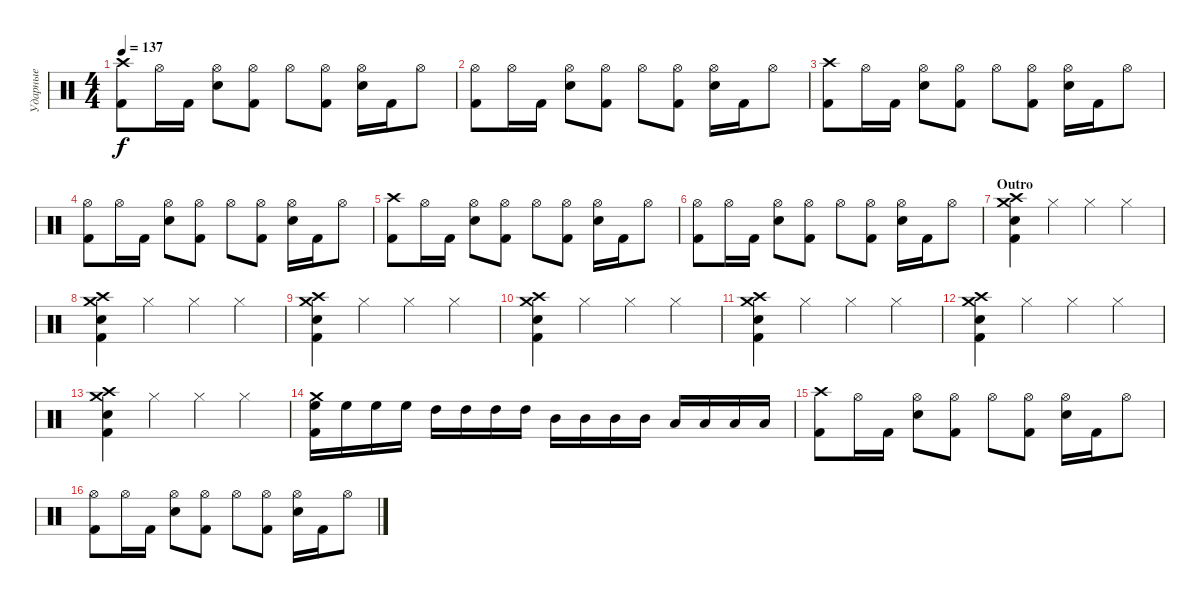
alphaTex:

\track ("Ударные" "Ударные") {instrument percussion}
\staff {score}
\articulation defaults
\ts (4 4)
\tempo 137
\clef neutral
\ks c
("Crash high (hit)" "Kick (hit) 2").8{dy f} "Hi-Hat (open)".16 "Kick (hit) 2".16 ("Hi-Hat (open)" "Electric Snare (hit)").8 ("Hi-Hat (open)" "Kick (hit) 2").8 "Hi-Hat (open)".8 ("Hi-Hat (open)" "Kick (hit) 2").8 ("Hi-Hat (open)" "Electric Snare (hit)").16 "Kick (hit) 2".16 "Hi-Hat (open)".8 |
("Hi-Hat (open)" "Kick (hit) 2").8 "Hi-Hat (open)".16 "Kick (hit) 2".16 ("Hi-Hat (open)" "Electric Snare (hit)").8 ("Hi-Hat (open)" "Kick (hit) 2").8 "Hi-Hat (open)".8 ("Hi-Hat (open)" "Kick (hit) 2").8 ("Hi-Hat (open)" "Electric Snare (hit)").16 "Kick (hit) 2".16 "Hi-Hat (open)".8 |
("Crash high (hit)" "Kick (hit) 2").8 "Hi-Hat (open)".16 "Kick (hit) 2".16 ("Hi-Hat (open)" "Electric Snare (hit)").8 ("Hi-Hat (open)" "Kick (hit) 2").8 "Hi-Hat (open)".8 ("Hi-Hat (open)" "Kick (hit) 2").8 ("Hi-Hat (open)" "Electric Snare (hit)").16 "Kick (hit) 2".16 "Hi-Hat (open)".8 |
("Hi-Hat (open)" "Kick (hit) 2").8 "Hi-Hat (open)".16 "Kick (hit) 2".16 ("Hi-Hat (open)" "Electric Snare (hit)").8 ("Hi-Hat (open)" "Kick (hit) 2").8 "Hi-Hat (open)".8 ("Hi-Hat (open)" "Kick (hit) 2").8 ("Hi-Hat (open)" "Electric Snare (hit)").16 "Kick (hit) 2".16 "Hi-Hat (open)".8 |
("Crash high (hit)" "Kick (hit) 2").8 "Hi-Hat (open)".16 "Kick (hit) 2".16 ("Hi-Hat (open)" "Electric Snare (hit)").8 ("Hi-Hat (open)" "Kick (hit) 2").8 "Hi-Hat (open)".8 ("Hi-Hat (open)" "Kick (hit) 2").8 ("Hi-Hat (open)" "Electric Snare (hit)").16 "Kick (hit) 2".16 "Hi-Hat (open)".8 |
("Hi-Hat (open)" "Kick (hit) 2").8 "Hi-Hat (open)".16 "Kick (hit) 2".16 ("Hi-Hat (open)" "Electric Snare (hit)").8 ("Hi-Hat (open)" "Kick (hit) 2").8 "Hi-Hat (open)".8 ("Hi-Hat (open)" "Kick (hit) 2").8 ("Hi-Hat (open)" "Electric Snare (hit)").16 "Kick (hit) 2".16 "Hi-Hat (open)".8 |
\section ("" "Outro")
("Crash medium (hit)" "Crash high (hit)" "Electric Snare (hit)" "Kick (hit) 2").4 "Hi-Hat (closed)".4 "Hi-Hat (closed)".4 "Hi-Hat (closed)".4 |
("Crash medium (hit)" "Crash high (hit)" "Electric Snare (hit)" "Kick (hit) 2").4 "Hi-Hat (closed)".4 "Hi-Hat (closed)".4 "Hi-Hat (closed)".4 |
("Crash medium (hit)" "Crash high (hit)" "Electric Snare (hit)" "Kick (hit) 2").4 "Hi-Hat (closed)".4 "Hi-Hat (closed)".4 "Hi-Hat (closed)".4 |
("Crash medium (hit)" "Crash high (hit)" "Electric Snare (hit)" "Kick (hit) 2").4 "Hi-Hat (closed)".4 "Hi-Hat (closed)".4 "Hi-Hat (closed)".4 |
("Crash medium (hit)" "Crash high (hit)" "Electric Snare (hit)" "Kick (hit) 2").4 "Hi-Hat (closed)".4 "Hi-Hat (closed)".4 "Hi-Hat (closed)".4 |
("Crash medium (hit)" "Crash high (hit)" "Electric Snare (hit)" "Kick (hit) 2").4 "Hi-Hat (closed)".4 "Hi-Hat (closed)".4 "Hi-Hat (closed)".4 |
("Crash medium (hit)" "Crash high (hit)" "Electric Snare (hit)" "Kick (hit) 2").4 "Hi-Hat (closed)".4 "Hi-Hat (closed)".4 "Hi-Hat (closed)".4 |
("High Floor Tom (hit)" "Crash medium (hit)" "Kick (hit) 2").16 "High Floor Tom (hit)".16 "High Floor Tom (hit)".16 "High Floor Tom (hit)".16 "High Tom (hit)".16 "High Tom (hit)".16 "High Tom (hit)".16 "High Tom (hit)".16 "Mid Tom (hit)".16 "Mid Tom (hit)".16 "Mid Tom (hit)".16 "Mid Tom (hit)".16 "Low Tom (hit)".16 "Low Tom (hit)".16 "Low Tom (hit)".16 "Low Tom (hit)".16 |
("Crash high (hit)" "Kick (hit) 2").8 "Hi-Hat (open)".16 "Kick (hit) 2".16 ("Hi-Hat (open)" "Electric Snare (hit)").8 ("Hi-Hat (open)" "Kick (hit) 2").8 "Hi-Hat (open)".8 ("Hi-Hat (open)" "Kick (hit) 2").8 ("Hi-Hat (open)" "Electric Snare (hit)").16 "Kick (hit) 2".16 "Hi-Hat (open)".8 |
("Hi-Hat (open)" "Kick (hit) 2").8 "Hi-Hat (open)".16 "Kick (hit) 2".16 ("Hi-Hat (open)" "Electric Snare (hit)").8 ("Hi-Hat (open)" "Kick (hit) 2").8 "Hi-Hat (open)".8 ("Hi-Hat (open)" "Kick (hit) 2").8 ("Hi-Hat (open)" "Electric Snare (hit)").16 "Kick (hit) 2".16 "Hi-Hat (open)".8
